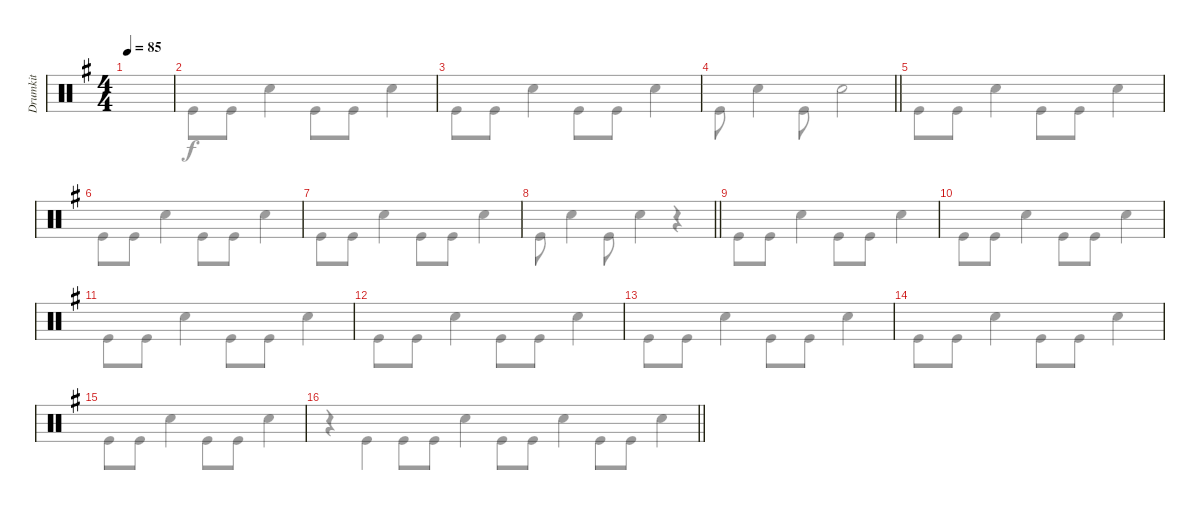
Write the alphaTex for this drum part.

\track ("Drumkit" "Drumkit") {instrument percussion}
\staff {score}
\articulation defaults
\voice
\ts (4 4)
\tempo 85
\clef neutral
\ks eminor
|
|
|
\barLineRight lightlight
|
|
|
|
\barLineRight lightlight
|
|
|
|
|
|
|
|
\barLineRight lightlight
\voice
\clef neutral
\ks eminor
r.4{dy f} "Kick (hit)".4 "Kick (hit)".8 "Kick (hit)".8 "Snare (hit) 2".4 |
"Kick (hit)".8 "Kick (hit)".8 "Snare (hit) 2".4 "Kick (hit)".8 "Kick (hit)".8 "Snare (hit) 2".4 |
"Kick (hit)".8 "Kick (hit)".8 "Snare (hit) 2".4 "Kick (hit)".8 "Kick (hit)".8 "Snare (hit) 2".4 |
\barLineRight lightlight "Kick (hit)".8 "Snare (hit) 2".4 "Kick (hit)".8 "Snare (hit) 2".2
|
"Kick (hit)".8 "Kick (hit)".8 "Snare (hit) 2".4 "Kick (hit)".8 "Kick (hit)".8 "Snare (hit) 2".4 |
"Kick (hit)".8 "Kick (hit)".8 "Snare (hit) 2".4 "Kick (hit)".8 "Kick (hit)".8 "Snare (hit) 2".4 |
"Kick (hit)".8 "Kick (hit)".8 "Snare (hit) 2".4 "Kick (hit)".8 "Kick (hit)".8 "Snare (hit) 2".4 |
\barLineRight lightlight "Kick (hit)".8 "Snare (hit) 2".4 "Kick (hit)".8 "Snare (hit) 2".4
r.4 |
"Kick (hit)".8 "Kick (hit)".8 "Snare (hit) 2".4 "Kick (hit)".8 "Kick (hit)".8 "Snare (hit) 2".4 |
"Kick (hit)".8 "Kick (hit)".8 "Snare (hit) 2".4 "Kick (hit)".8 "Kick (hit)".8 "Snare (hit) 2".4 |
"Kick (hit)".8 "Kick (hit)".8 "Snare (hit) 2".4 "Kick (hit)".8 "Kick (hit)".8 "Snare (hit) 2".4 |
"Kick (hit)".8 "Kick (hit)".8 "Snare (hit) 2".4 "Kick (hit)".8 "Kick (hit)".8 "Snare (hit) 2".4 |
"Kick (hit)".8 "Kick (hit)".8 "Snare (hit) 2".4 "Kick (hit)".8 "Kick (hit)".8 "Snare (hit) 2".4 |
"Kick (hit)".8 "Kick (hit)".8 "Snare (hit) 2".4 "Kick (hit)".8 "Kick (hit)".8 "Snare (hit) 2".4 |
"Kick (hit)".8 "Kick (hit)".8 "Snare (hit) 2".4 "Kick (hit)".8 "Kick (hit)".8 "Snare (hit) 2".4 |
\barLineRight lightlight "Kick (hit)".8 "Kick (hit)".8 "Snare (hit) 2".4 "Kick (hit)".8 "Kick (hit)".8 "Snare (hit) 2".4
